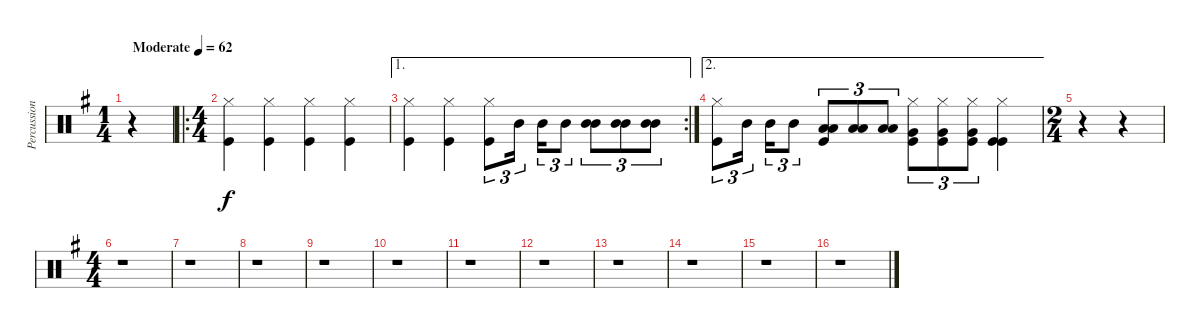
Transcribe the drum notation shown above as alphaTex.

\track ("Percussions" "Percussion") {instrument percussion}
\staff {score}
\articulation defaults
\ts (1 4)
\tempo (62 "Moderate")
\clef neutral
\ks g
r.4{dy f} |
\ro
\ts (4 4)
("Hi-Hat (closed)" "Kick (hit)").4 ("Hi-Hat (closed)" "Kick (hit)").4 ("Hi-Hat (closed)" "Kick (hit)").4 ("Hi-Hat (closed)" "Kick (hit)").4 |
\ae 1
\rc 2
("Hi-Hat (closed)" "Kick (hit)").4 ("Hi-Hat (closed)" "Kick (hit)").4 ("Hi-Hat (closed)" "Kick (hit)").8{tu (3 2)} "Mid Tom (hit)".16{tu (3 2) beam splitsecondary} "Mid Tom (hit)".16{tu (3 2)} "Mid Tom (hit)".8{tu (3 2)} ("Mid Tom (hit)" "Mid Tom (hit)").8{tu (3 2)} ("Mid Tom (hit)" "Mid Tom (hit)").8{tu (3 2)} ("Mid Tom (hit)" "Mid Tom (hit)").8{tu (3 2)} |
\ae 2
("Hi-Hat (closed)" "Kick (hit)").8{tu (3 2)} "Mid Tom (hit)".16{tu (3 2) beam splitsecondary} "Mid Tom (hit)".16{tu (3 2)} "Mid Tom (hit)".8{tu (3 2)} ("Low Tom (hit)" "Low Tom (hit)" "Kick (hit)").8{tu (3 2)} ("Low Tom (hit)" "Low Tom (hit)").8{tu (3 2)} ("Low Tom (hit)" "Low Tom (hit)").8{tu (3 2)} ("Hi-Hat (closed)" "Very Low Tom (hit)" "Kick (hit)").8{tu (3 2)} ("Hi-Hat (closed)" "Very Low Tom (hit)" "Kick (hit)").8{tu (3 2)} ("Hi-Hat (closed)" "Very Low Tom (hit)" "Kick (hit)").8{tu (3 2)} ("Hi-Hat (closed)" "Kick (hit)" "Kick (hit)").4 |
\ts (2 4)
r.4 r.4 |
\ts (4 4)
r.1 |
r.1 |
r.1 |
r.1 |
r.1 |
r.1 |
r.1 |
r.1 |
r.1 |
r.1 |
r.1
